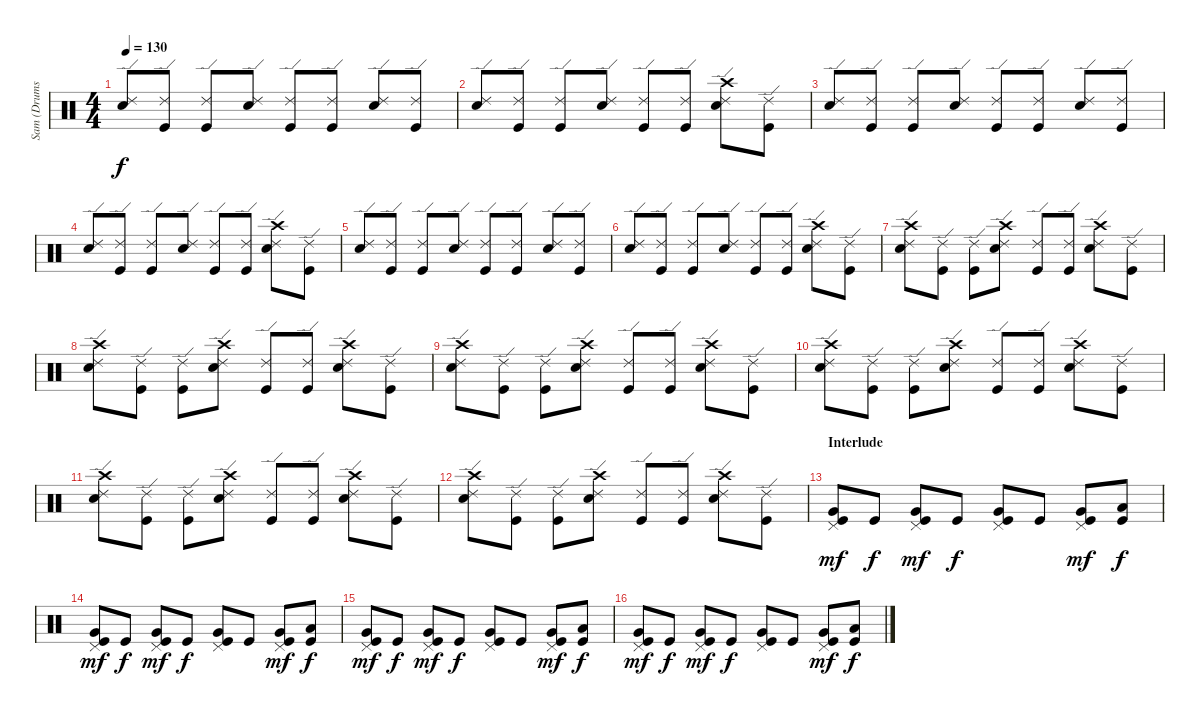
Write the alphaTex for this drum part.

\track ("Sam (Drums)" "Sam (Drums") {instrument percussion}
\staff {score}
\articulation defaults
\ts (4 4)
\tempo 130
\clef neutral
\ks c
("Ride (edge) 2" "Snare (hit) 2").8{dy f} ("Ride (edge) 2" "Kick (hit)").8 ("Ride (edge) 2" "Kick (hit)").8 ("Ride (edge) 2" "Snare (hit) 2").8 ("Ride (edge) 2" "Kick (hit)").8 ("Ride (edge) 2" "Kick (hit)").8 ("Ride (edge) 2" "Snare (hit) 2").8 ("Ride (edge) 2" "Kick (hit)").8 |
("Ride (edge) 2" "Snare (hit) 2").8 ("Ride (edge) 2" "Kick (hit)").8 ("Ride (edge) 2" "Kick (hit)").8 ("Ride (edge) 2" "Snare (hit) 2").8 ("Ride (edge) 2" "Kick (hit)").8 ("Ride (edge) 2" "Kick (hit)").8 ("Crash high (hit)" "Ride (edge) 2" "Snare (hit) 2").8 ("Ride (edge) 2" "Kick (hit)").8 |
("Ride (edge) 2" "Snare (hit) 2").8 ("Ride (edge) 2" "Kick (hit)").8 ("Ride (edge) 2" "Kick (hit)").8 ("Ride (edge) 2" "Snare (hit) 2").8 ("Ride (edge) 2" "Kick (hit)").8 ("Ride (edge) 2" "Kick (hit)").8 ("Ride (edge) 2" "Snare (hit) 2").8 ("Ride (edge) 2" "Kick (hit)").8 |
("Ride (edge) 2" "Snare (hit) 2").8 ("Ride (edge) 2" "Kick (hit)").8 ("Ride (edge) 2" "Kick (hit)").8 ("Ride (edge) 2" "Snare (hit) 2").8 ("Ride (edge) 2" "Kick (hit)").8 ("Ride (edge) 2" "Kick (hit)").8 ("Crash high (hit)" "Ride (edge) 2" "Snare (hit) 2").8 ("Ride (edge) 2" "Kick (hit)").8 |
("Ride (edge) 2" "Snare (hit) 2").8 ("Ride (edge) 2" "Kick (hit)").8 ("Ride (edge) 2" "Kick (hit)").8 ("Ride (edge) 2" "Snare (hit) 2").8 ("Ride (edge) 2" "Kick (hit)").8 ("Ride (edge) 2" "Kick (hit)").8 ("Ride (edge) 2" "Snare (hit) 2").8 ("Ride (edge) 2" "Kick (hit)").8 |
("Ride (edge) 2" "Snare (hit) 2").8 ("Ride (edge) 2" "Kick (hit)").8 ("Ride (edge) 2" "Kick (hit)").8 ("Ride (edge) 2" "Snare (hit) 2").8 ("Ride (edge) 2" "Kick (hit)").8 ("Ride (edge) 2" "Kick (hit)").8 ("Crash high (hit)" "Ride (edge) 2" "Snare (hit) 2").8 ("Ride (edge) 2" "Kick (hit)").8 |
("Crash high (hit)" "Ride (edge) 2" "Snare (hit) 2").8 ("Ride (edge) 2" "Kick (hit)").8 ("Ride (edge) 2" "Kick (hit)").8 ("Crash high (hit)" "Ride (edge) 2" "Snare (hit) 2").8 ("Ride (edge) 2" "Kick (hit)").8 ("Ride (edge) 2" "Kick (hit)").8 ("Crash high (hit)" "Ride (edge) 2" "Snare (hit) 2").8 ("Ride (edge) 2" "Kick (hit)").8 |
("Crash high (hit)" "Ride (edge) 2" "Snare (hit) 2").8 ("Ride (edge) 2" "Kick (hit)").8 ("Ride (edge) 2" "Kick (hit)").8 ("Crash high (hit)" "Ride (edge) 2" "Snare (hit) 2").8 ("Ride (edge) 2" "Kick (hit)").8 ("Ride (edge) 2" "Kick (hit)").8 ("Crash high (hit)" "Ride (edge) 2" "Snare (hit) 2").8 ("Ride (edge) 2" "Kick (hit)").8 |
("Crash high (hit)" "Ride (edge) 2" "Snare (hit) 2").8 ("Ride (edge) 2" "Kick (hit)").8 ("Ride (edge) 2" "Kick (hit)").8 ("Crash high (hit)" "Ride (edge) 2" "Snare (hit) 2").8 ("Ride (edge) 2" "Kick (hit)").8 ("Ride (edge) 2" "Kick (hit)").8 ("Crash high (hit)" "Ride (edge) 2" "Snare (hit) 2").8 ("Ride (edge) 2" "Kick (hit)").8 |
("Crash high (hit)" "Ride (edge) 2" "Snare (hit) 2").8 ("Ride (edge) 2" "Kick (hit)").8 ("Ride (edge) 2" "Kick (hit)").8 ("Crash high (hit)" "Ride (edge) 2" "Snare (hit) 2").8 ("Ride (edge) 2" "Kick (hit)").8 ("Ride (edge) 2" "Kick (hit)").8 ("Crash high (hit)" "Ride (edge) 2" "Snare (hit) 2").8 ("Ride (edge) 2" "Kick (hit)").8 |
("Crash high (hit)" "Ride (edge) 2" "Snare (hit) 2").8 ("Ride (edge) 2" "Kick (hit)").8 ("Ride (edge) 2" "Kick (hit)").8 ("Crash high (hit)" "Ride (edge) 2" "Snare (hit) 2").8 ("Ride (edge) 2" "Kick (hit)").8 ("Ride (edge) 2" "Kick (hit)").8 ("Crash high (hit)" "Ride (edge) 2" "Snare (hit) 2").8 ("Ride (edge) 2" "Kick (hit)").8 |
("Crash high (hit)" "Ride (edge) 2" "Snare (hit) 2").8 ("Ride (edge) 2" "Kick (hit)").8 ("Ride (edge) 2" "Kick (hit)").8 ("Crash high (hit)" "Ride (edge) 2" "Snare (hit) 2").8 ("Ride (edge) 2" "Kick (hit)").8 ("Ride (edge) 2" "Kick (hit)").8 ("Crash high (hit)" "Ride (edge) 2" "Snare (hit) 2").8 ("Ride (edge) 2" "Kick (hit)").8 |
\section ("" "Interlude")
("Pedal Hi-Hat (hit)" "Very Low Tom (hit)" "Kick (hit)").8{dy mf} "Kick (hit)".8{dy f} ("Pedal Hi-Hat (hit)" "Very Low Tom (hit)" "Kick (hit)").8{dy mf} "Kick (hit)".8{dy f} ("Pedal Hi-Hat (hit)" "Very Low Tom (hit)" "Kick (hit)").8 "Kick (hit)".8 ("Pedal Hi-Hat (hit)" "Very Low Tom (hit)" "Kick (hit)").8{dy mf} ("Low Floor Tom (hit)" "Kick (hit)").8{dy f} |
("Pedal Hi-Hat (hit)" "Very Low Tom (hit)" "Kick (hit)").8{dy mf} "Kick (hit)".8{dy f} ("Pedal Hi-Hat (hit)" "Very Low Tom (hit)" "Kick (hit)").8{dy mf} "Kick (hit)".8{dy f} ("Pedal Hi-Hat (hit)" "Very Low Tom (hit)" "Kick (hit)").8 "Kick (hit)".8 ("Pedal Hi-Hat (hit)" "Very Low Tom (hit)" "Kick (hit)").8{dy mf} ("Low Floor Tom (hit)" "Kick (hit)").8{dy f} |
("Pedal Hi-Hat (hit)" "Very Low Tom (hit)" "Kick (hit)").8{dy mf} "Kick (hit)".8{dy f} ("Pedal Hi-Hat (hit)" "Very Low Tom (hit)" "Kick (hit)").8{dy mf} "Kick (hit)".8{dy f} ("Pedal Hi-Hat (hit)" "Very Low Tom (hit)" "Kick (hit)").8 "Kick (hit)".8 ("Pedal Hi-Hat (hit)" "Very Low Tom (hit)" "Kick (hit)").8{dy mf} ("Low Floor Tom (hit)" "Kick (hit)").8{dy f} |
("Pedal Hi-Hat (hit)" "Very Low Tom (hit)" "Kick (hit)").8{dy mf} "Kick (hit)".8{dy f} ("Pedal Hi-Hat (hit)" "Very Low Tom (hit)" "Kick (hit)").8{dy mf} "Kick (hit)".8{dy f} ("Pedal Hi-Hat (hit)" "Very Low Tom (hit)" "Kick (hit)").8 "Kick (hit)".8 ("Pedal Hi-Hat (hit)" "Very Low Tom (hit)" "Kick (hit)").8{dy mf} ("Low Floor Tom (hit)" "Kick (hit)").8{dy f}
